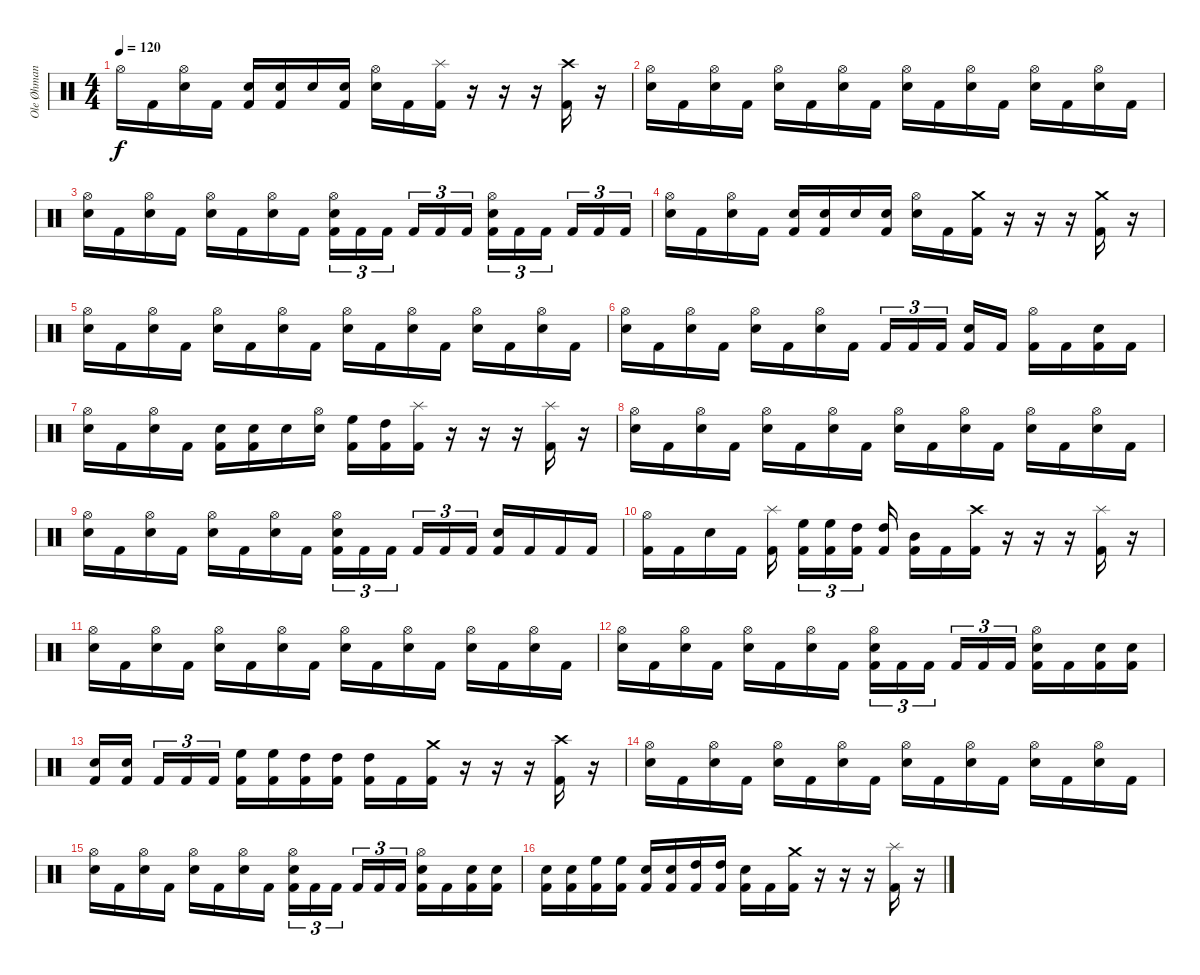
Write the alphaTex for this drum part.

\track ("Ole Øhman (Trommur)" "Ole Øhman ") {instrument percussion}
\staff {score}
\articulation defaults
\ts (4 4)
\tempo 120
\clef neutral
\ks c "Hi-Hat (open)".16{dy f} "Kick (hit) 2".16
("Hi-Hat (open)" "Electric Snare (hit)").16 "Kick (hit) 2".16 ("Electric Snare (hit)" "Kick (hit) 2").16 ("Electric Snare (hit)" "Kick (hit) 2").16 "Electric Snare (hit)".16 ("Electric Snare (hit)" "Kick (hit) 2").16 ("Hi-Hat (open)" "Electric Snare (hit)").16 "Kick (hit) 2".16 ("Splash (hit)" "Kick (hit) 2").16 r.16 r.16 r.16 ("Crash high (hit)" "Kick (hit) 2").16 r.16 |
("Hi-Hat (open)" "Electric Snare (hit)").16 "Kick (hit) 2".16 ("Hi-Hat (open)" "Electric Snare (hit)").16 "Kick (hit) 2".16 ("Hi-Hat (open)" "Electric Snare (hit)").16 "Kick (hit) 2".16 ("Hi-Hat (open)" "Electric Snare (hit)").16 "Kick (hit) 2".16 ("Hi-Hat (open)" "Electric Snare (hit)").16 "Kick (hit) 2".16 ("Hi-Hat (open)" "Electric Snare (hit)").16 "Kick (hit) 2".16 ("Hi-Hat (open)" "Electric Snare (hit)").16 "Kick (hit) 2".16 ("Hi-Hat (open)" "Electric Snare (hit)").16 "Kick (hit) 2".16 |
("Hi-Hat (open)" "Electric Snare (hit)").16 "Kick (hit) 2".16 ("Hi-Hat (open)" "Electric Snare (hit)").16 "Kick (hit) 2".16 ("Hi-Hat (open)" "Electric Snare (hit)").16 "Kick (hit) 2".16 ("Hi-Hat (open)" "Electric Snare (hit)").16 "Kick (hit) 2".16 ("Hi-Hat (open)" "Electric Snare (hit)" "Kick (hit) 2").16{tu (3 2)} "Kick (hit) 2".16{tu (3 2)} "Kick (hit) 2".16{tu (3 2)} "Kick (hit) 2".16{tu (3 2)} "Kick (hit) 2".16{tu (3 2)} "Kick (hit) 2".16{tu (3 2)} ("Hi-Hat (open)" "Electric Snare (hit)" "Kick (hit) 2").16{tu (3 2)} "Kick (hit) 2".16{tu (3 2)} "Kick (hit) 2".16{tu (3 2)} "Kick (hit) 2".16{tu (3 2)} "Kick (hit) 2".16{tu (3 2)} "Kick (hit) 2".16{tu (3 2)} |
("Hi-Hat (open)" "Electric Snare (hit)").16 "Kick (hit) 2".16 ("Hi-Hat (open)" "Electric Snare (hit)").16 "Kick (hit) 2".16 ("Electric Snare (hit)" "Kick (hit) 2").16 ("Electric Snare (hit)" "Kick (hit) 2").16 "Electric Snare (hit)".16 ("Electric Snare (hit)" "Kick (hit) 2").16 ("Hi-Hat (open)" "Electric Snare (hit)").16 "Kick (hit) 2".16 ("Crash medium (hit)" "Kick (hit) 2").16 r.16 r.16 r.16 ("Crash medium (hit)" "Kick (hit) 2").16 r.16 |
("Hi-Hat (open)" "Electric Snare (hit)").16 "Kick (hit) 2".16 ("Hi-Hat (open)" "Electric Snare (hit)").16 "Kick (hit) 2".16 ("Hi-Hat (open)" "Electric Snare (hit)").16 "Kick (hit) 2".16 ("Hi-Hat (open)" "Electric Snare (hit)").16 "Kick (hit) 2".16 ("Hi-Hat (open)" "Electric Snare (hit)").16 "Kick (hit) 2".16 ("Hi-Hat (open)" "Electric Snare (hit)").16 "Kick (hit) 2".16 ("Hi-Hat (open)" "Electric Snare (hit)").16 "Kick (hit) 2".16 ("Hi-Hat (open)" "Electric Snare (hit)").16 "Kick (hit) 2".16 |
("Hi-Hat (open)" "Electric Snare (hit)").16 "Kick (hit) 2".16 ("Hi-Hat (open)" "Electric Snare (hit)").16 "Kick (hit) 2".16 ("Hi-Hat (open)" "Electric Snare (hit)").16 "Kick (hit) 2".16 ("Hi-Hat (open)" "Electric Snare (hit)").16 "Kick (hit) 2".16 "Kick (hit) 2".16{tu (3 2)} "Kick (hit) 2".16{tu (3 2)} "Kick (hit) 2".16{tu (3 2)} ("Electric Snare (hit)" "Kick (hit) 2").16 "Kick (hit) 2".16 ("Hi-Hat (open)" "Kick (hit) 2").16 "Kick (hit) 2".16 ("Electric Snare (hit)" "Kick (hit) 2").16 "Kick (hit) 2".16 |
("Hi-Hat (open)" "Electric Snare (hit)").16 "Kick (hit) 2".16 ("Hi-Hat (open)" "Electric Snare (hit)").16 "Kick (hit) 2".16 ("Electric Snare (hit)" "Kick (hit) 2").16 ("Electric Snare (hit)" "Kick (hit) 2").16 "Electric Snare (hit)".16 ("Hi-Hat (open)" "Electric Snare (hit)").16 ("High Floor Tom (hit)" "Kick (hit) 2").16 ("High Tom (hit)" "Kick (hit) 2").16 ("Splash (hit)" "Kick (hit) 2").16 r.16 r.16 r.16 ("Splash (hit)" "Kick (hit) 2").16 r.16 |
("Hi-Hat (open)" "Electric Snare (hit)").16 "Kick (hit) 2".16 ("Hi-Hat (open)" "Electric Snare (hit)").16 "Kick (hit) 2".16 ("Hi-Hat (open)" "Electric Snare (hit)").16 "Kick (hit) 2".16 ("Hi-Hat (open)" "Electric Snare (hit)").16 "Kick (hit) 2".16 ("Hi-Hat (open)" "Electric Snare (hit)").16 "Kick (hit) 2".16 ("Hi-Hat (open)" "Electric Snare (hit)").16 "Kick (hit) 2".16 ("Hi-Hat (open)" "Electric Snare (hit)").16 "Kick (hit) 2".16 ("Hi-Hat (open)" "Electric Snare (hit)").16 "Kick (hit) 2".16 |
("Hi-Hat (open)" "Electric Snare (hit)").16 "Kick (hit) 2".16 ("Hi-Hat (open)" "Electric Snare (hit)").16 "Kick (hit) 2".16 ("Hi-Hat (open)" "Electric Snare (hit)").16 "Kick (hit) 2".16 ("Hi-Hat (open)" "Electric Snare (hit)").16 "Kick (hit) 2".16 ("Hi-Hat (open)" "Electric Snare (hit)" "Kick (hit) 2").16{tu (3 2)} "Kick (hit) 2".16{tu (3 2)} "Kick (hit) 2".16{tu (3 2)} "Kick (hit) 2".16{tu (3 2)} "Kick (hit) 2".16{tu (3 2)} "Kick (hit) 2".16{tu (3 2)} ("Electric Snare (hit)" "Kick (hit) 2").16 "Kick (hit) 2".16 "Kick (hit) 2".16 "Kick (hit) 2".16 |
("Hi-Hat (open)" "Kick (hit) 2").16 "Kick (hit) 2".16 "Electric Snare (hit)".16 "Kick (hit) 2".16 ("Splash (hit)" "Kick (hit) 2").16 ("High Floor Tom (hit)" "Kick (hit) 2").16{tu (3 2)} ("High Floor Tom (hit)" "Kick (hit) 2").16{tu (3 2)} ("High Tom (hit)" "Kick (hit) 2").16{tu (3 2)} ("High Tom (hit)" "Kick (hit) 2").16 ("Mid Tom (hit)" "Kick (hit) 2").16 "Kick (hit) 2".16 ("Crash high (hit)" "Kick (hit) 2").16 r.16 r.16 r.16 ("Splash (hit)" "Kick (hit) 2").16 r.16 |
("Hi-Hat (open)" "Electric Snare (hit)").16 "Kick (hit) 2".16 ("Hi-Hat (open)" "Electric Snare (hit)").16 "Kick (hit) 2".16 ("Hi-Hat (open)" "Electric Snare (hit)").16 "Kick (hit) 2".16 ("Hi-Hat (open)" "Electric Snare (hit)").16 "Kick (hit) 2".16 ("Hi-Hat (open)" "Electric Snare (hit)").16 "Kick (hit) 2".16 ("Hi-Hat (open)" "Electric Snare (hit)").16 "Kick (hit) 2".16 ("Hi-Hat (open)" "Electric Snare (hit)").16 "Kick (hit) 2".16 ("Hi-Hat (open)" "Electric Snare (hit)").16 "Kick (hit) 2".16 |
("Hi-Hat (open)" "Electric Snare (hit)").16 "Kick (hit) 2".16 ("Hi-Hat (open)" "Electric Snare (hit)").16 "Kick (hit) 2".16 ("Hi-Hat (open)" "Electric Snare (hit)").16 "Kick (hit) 2".16 ("Hi-Hat (open)" "Electric Snare (hit)").16 "Kick (hit) 2".16 ("Hi-Hat (open)" "Electric Snare (hit)" "Kick (hit) 2").16{tu (3 2)} "Kick (hit) 2".16{tu (3 2)} "Kick (hit) 2".16{tu (3 2)} "Kick (hit) 2".16{tu (3 2)} "Kick (hit) 2".16{tu (3 2)} "Kick (hit) 2".16{tu (3 2)} ("Hi-Hat (open)" "Electric Snare (hit)" "Kick (hit) 2").16 "Kick (hit) 2".16 ("Electric Snare (hit)" "Kick (hit) 2").16 ("Electric Snare (hit)" "Kick (hit) 2").16 |
("Electric Snare (hit)" "Kick (hit) 2").16 ("Electric Snare (hit)" "Kick (hit) 2").16 "Kick (hit) 2".16{tu (3 2)} "Kick (hit) 2".16{tu (3 2)} "Kick (hit) 2".16{tu (3 2)} ("High Floor Tom (hit)" "Kick (hit) 2").16 ("High Floor Tom (hit)" "Kick (hit) 2").16 ("High Tom (hit)" "Kick (hit) 2").16 ("High Tom (hit)" "Kick (hit) 2").16 ("High Tom (hit)" "Kick (hit) 2").16 "Kick (hit) 2".16 ("Crash medium (hit)" "Kick (hit) 2").16 r.16 r.16 r.16 ("Crash high (hit)" "Kick (hit) 2").16 r.16 |
("Hi-Hat (open)" "Electric Snare (hit)").16 "Kick (hit) 2".16 ("Hi-Hat (open)" "Electric Snare (hit)").16 "Kick (hit) 2".16 ("Hi-Hat (open)" "Electric Snare (hit)").16 "Kick (hit) 2".16 ("Hi-Hat (open)" "Electric Snare (hit)").16 "Kick (hit) 2".16 ("Hi-Hat (open)" "Electric Snare (hit)").16 "Kick (hit) 2".16 ("Hi-Hat (open)" "Electric Snare (hit)").16 "Kick (hit) 2".16 ("Hi-Hat (open)" "Electric Snare (hit)").16 "Kick (hit) 2".16 ("Hi-Hat (open)" "Electric Snare (hit)").16 "Kick (hit) 2".16 |
("Hi-Hat (open)" "Electric Snare (hit)").16 "Kick (hit) 2".16 ("Hi-Hat (open)" "Electric Snare (hit)").16 "Kick (hit) 2".16 ("Hi-Hat (open)" "Electric Snare (hit)").16 "Kick (hit) 2".16 ("Hi-Hat (open)" "Electric Snare (hit)").16 "Kick (hit) 2".16 ("Hi-Hat (open)" "Electric Snare (hit)" "Kick (hit) 2").16{tu (3 2)} "Kick (hit) 2".16{tu (3 2)} "Kick (hit) 2".16{tu (3 2)} "Kick (hit) 2".16{tu (3 2)} "Kick (hit) 2".16{tu (3 2)} "Kick (hit) 2".16{tu (3 2)} ("Hi-Hat (open)" "Electric Snare (hit)" "Kick (hit) 2").16 "Kick (hit) 2".16 ("Electric Snare (hit)" "Kick (hit) 2").16 ("Electric Snare (hit)" "Kick (hit) 2").16 |
("Electric Snare (hit)" "Kick (hit) 2").16 ("Electric Snare (hit)" "Kick (hit) 2").16 ("High Floor Tom (hit)" "Kick (hit) 2").16 ("High Floor Tom (hit)" "Kick (hit) 2").16 ("Electric Snare (hit)" "Kick (hit) 2").16 ("Electric Snare (hit)" "Kick (hit) 2").16 ("High Tom (hit)" "Kick (hit) 2").16 ("High Tom (hit)" "Kick (hit) 2").16 ("Electric Snare (hit)" "Kick (hit) 2").16 "Kick (hit) 2".16 ("Crash medium (hit)" "Kick (hit) 2").16 r.16 r.16 r.16 ("Splash (hit)" "Kick (hit) 2").16 r.16
